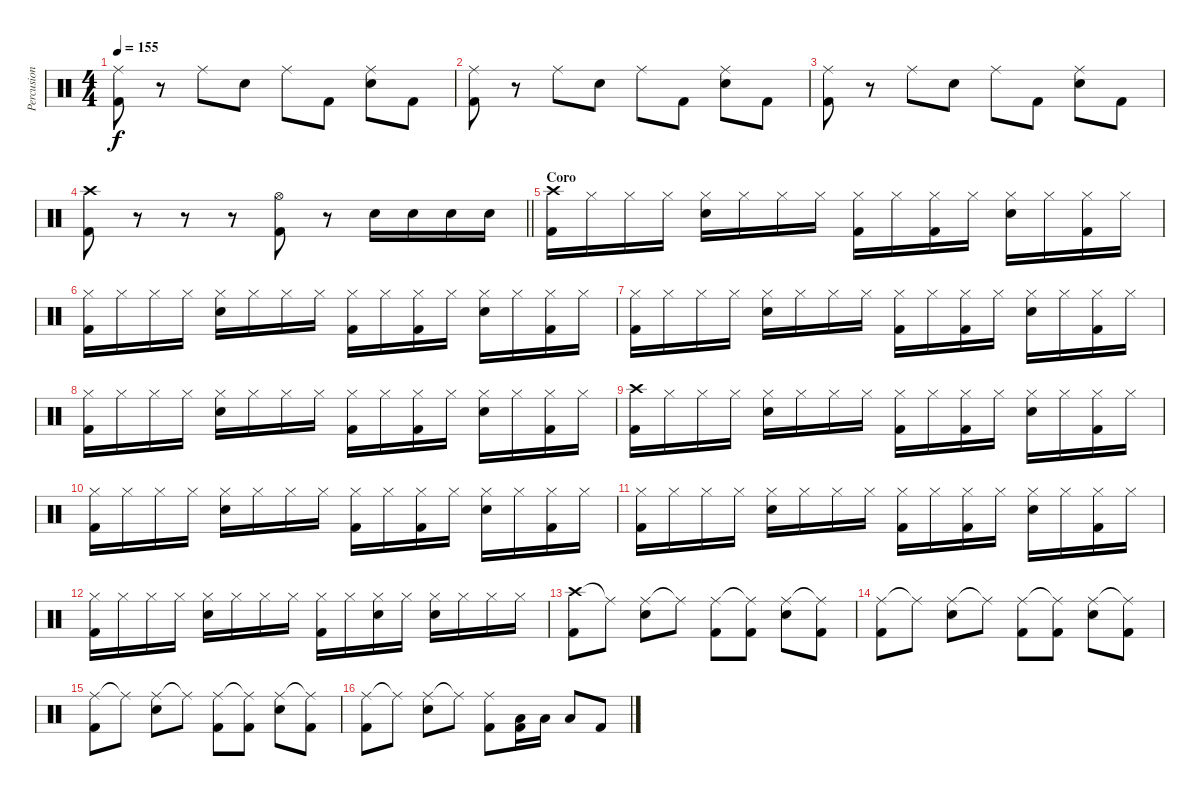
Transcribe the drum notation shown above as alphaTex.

\track ("Percusion" "Percusion") {instrument percussion}
\staff {score}
\articulation defaults
\ts (4 4)
\tempo 155
\clef neutral
\ks c
("Ride (middle)" "Kick (hit) 2").8{dy f} r.8 "Ride (middle)".8 "Electric Snare (hit)".8 "Ride (middle)".8 "Kick (hit) 2".8 ("Ride (middle)" "Electric Snare (hit)").8 "Kick (hit) 2".8 |
("Ride (middle)" "Kick (hit) 2").8 r.8 "Ride (middle)".8 "Electric Snare (hit)".8 "Ride (middle)".8 "Kick (hit) 2".8 ("Ride (middle)" "Electric Snare (hit)").8 "Kick (hit) 2".8 |
("Ride (middle)" "Kick (hit) 2").8 r.8 "Ride (middle)".8 "Electric Snare (hit)".8 "Ride (middle)".8 "Kick (hit) 2".8 ("Ride (middle)" "Electric Snare (hit)").8 "Kick (hit) 2".8 |
\barLineRight lightlight
("Crash high (hit)" "Kick (hit) 2").8 r.8 r.8 r.8 ("Hi-Hat (open)" "Kick (hit) 2").8 r.8 "Electric Snare (hit)".16 "Electric Snare (hit)".16 "Electric Snare (hit)".16 "Electric Snare (hit)".16 |
\section ("" "Coro")
("Crash high (hit)" "Kick (hit) 2").16 "Hi-Hat (closed)".16 "Hi-Hat (closed)".16 "Hi-Hat (closed)".16 ("Hi-Hat (closed)" "Electric Snare (hit)").16 "Hi-Hat (closed)".16 "Hi-Hat (closed)".16 "Hi-Hat (closed)".16 ("Hi-Hat (closed)" "Kick (hit) 2").16 "Hi-Hat (closed)".16 ("Hi-Hat (closed)" "Kick (hit) 2").16 "Hi-Hat (closed)".16 ("Hi-Hat (closed)" "Electric Snare (hit)").16 "Hi-Hat (closed)".16 ("Hi-Hat (closed)" "Kick (hit) 2").16 "Hi-Hat (closed)".16 |
("Hi-Hat (closed)" "Kick (hit) 2").16 "Hi-Hat (closed)".16 "Hi-Hat (closed)".16 "Hi-Hat (closed)".16 ("Hi-Hat (closed)" "Electric Snare (hit)").16 "Hi-Hat (closed)".16 "Hi-Hat (closed)".16 "Hi-Hat (closed)".16 ("Hi-Hat (closed)" "Kick (hit) 2").16 "Hi-Hat (closed)".16 ("Hi-Hat (closed)" "Kick (hit) 2").16 "Hi-Hat (closed)".16 ("Hi-Hat (closed)" "Electric Snare (hit)").16 "Hi-Hat (closed)".16 ("Hi-Hat (closed)" "Kick (hit) 2").16 "Hi-Hat (closed)".16 |
("Hi-Hat (closed)" "Kick (hit) 2").16 "Hi-Hat (closed)".16 "Hi-Hat (closed)".16 "Hi-Hat (closed)".16 ("Hi-Hat (closed)" "Electric Snare (hit)").16 "Hi-Hat (closed)".16 "Hi-Hat (closed)".16 "Hi-Hat (closed)".16 ("Hi-Hat (closed)" "Kick (hit) 2").16 "Hi-Hat (closed)".16 ("Hi-Hat (closed)" "Kick (hit) 2").16 "Hi-Hat (closed)".16 ("Hi-Hat (closed)" "Electric Snare (hit)").16 "Hi-Hat (closed)".16 ("Hi-Hat (closed)" "Kick (hit) 2").16 "Hi-Hat (closed)".16 |
("Hi-Hat (closed)" "Kick (hit) 2").16 "Hi-Hat (closed)".16 "Hi-Hat (closed)".16 "Hi-Hat (closed)".16 ("Hi-Hat (closed)" "Electric Snare (hit)").16 "Hi-Hat (closed)".16 "Hi-Hat (closed)".16 "Hi-Hat (closed)".16 ("Hi-Hat (closed)" "Kick (hit) 2").16 "Hi-Hat (closed)".16 ("Hi-Hat (closed)" "Kick (hit) 2").16 "Hi-Hat (closed)".16 ("Hi-Hat (closed)" "Electric Snare (hit)").16 "Hi-Hat (closed)".16 ("Hi-Hat (closed)" "Kick (hit) 2").16 "Hi-Hat (closed)".16 |
("Crash high (hit)" "Kick (hit) 2").16 "Hi-Hat (closed)".16 "Hi-Hat (closed)".16 "Hi-Hat (closed)".16 ("Hi-Hat (closed)" "Electric Snare (hit)").16 "Hi-Hat (closed)".16 "Hi-Hat (closed)".16 "Hi-Hat (closed)".16 ("Hi-Hat (closed)" "Kick (hit) 2").16 "Hi-Hat (closed)".16 ("Hi-Hat (closed)" "Kick (hit) 2").16 "Hi-Hat (closed)".16 ("Hi-Hat (closed)" "Electric Snare (hit)").16 "Hi-Hat (closed)".16 ("Hi-Hat (closed)" "Kick (hit) 2").16 "Hi-Hat (closed)".16 |
("Hi-Hat (closed)" "Kick (hit) 2").16 "Hi-Hat (closed)".16 "Hi-Hat (closed)".16 "Hi-Hat (closed)".16 ("Hi-Hat (closed)" "Electric Snare (hit)").16 "Hi-Hat (closed)".16 "Hi-Hat (closed)".16 "Hi-Hat (closed)".16 ("Hi-Hat (closed)" "Kick (hit) 2").16 "Hi-Hat (closed)".16 ("Hi-Hat (closed)" "Kick (hit) 2").16 "Hi-Hat (closed)".16 ("Hi-Hat (closed)" "Electric Snare (hit)").16 "Hi-Hat (closed)".16 ("Hi-Hat (closed)" "Kick (hit) 2").16 "Hi-Hat (closed)".16 |
("Hi-Hat (closed)" "Kick (hit) 2").16 "Hi-Hat (closed)".16 "Hi-Hat (closed)".16 "Hi-Hat (closed)".16 ("Hi-Hat (closed)" "Electric Snare (hit)").16 "Hi-Hat (closed)".16 "Hi-Hat (closed)".16 "Hi-Hat (closed)".16 ("Hi-Hat (closed)" "Kick (hit) 2").16 "Hi-Hat (closed)".16 ("Hi-Hat (closed)" "Kick (hit) 2").16 "Hi-Hat (closed)".16 ("Hi-Hat (closed)" "Electric Snare (hit)").16 "Hi-Hat (closed)".16 ("Hi-Hat (closed)" "Kick (hit) 2").16 "Hi-Hat (closed)".16 |
("Hi-Hat (closed)" "Kick (hit) 2").16 "Hi-Hat (closed)".16 "Hi-Hat (closed)".16 "Hi-Hat (closed)".16 ("Hi-Hat (closed)" "Electric Snare (hit)").16 "Hi-Hat (closed)".16 "Hi-Hat (closed)".16 "Hi-Hat (closed)".16 ("Hi-Hat (closed)" "Kick (hit) 2").16 "Hi-Hat (closed)".16 ("Hi-Hat (closed)" "Electric Snare (hit)").16 "Hi-Hat (closed)".16 ("Hi-Hat (closed)" "Electric Snare (hit)").16 "Hi-Hat (closed)".16 "Hi-Hat (closed)".16 "Hi-Hat (closed)".16 |
("Crash high (hit)" "Kick (hit) 2").8 "Ride (middle)"{t}.8 ("Ride (middle)" "Electric Snare (hit)").8 "Ride (middle)"{t}.8 ("Ride (middle)" "Kick (hit) 2").8 ("Ride (middle)"{t} "Kick (hit) 2").8 ("Ride (middle)" "Electric Snare (hit)").8 ("Ride (middle)"{t} "Kick (hit) 2").8 |
("Ride (middle)" "Kick (hit) 2").8 "Ride (middle)"{t}.8 ("Ride (middle)" "Electric Snare (hit)").8 "Ride (middle)"{t}.8 ("Ride (middle)" "Kick (hit) 2").8 ("Ride (middle)"{t} "Kick (hit) 2").8 ("Ride (middle)" "Electric Snare (hit)").8 ("Ride (middle)"{t} "Kick (hit) 2").8 |
("Ride (middle)" "Kick (hit) 2").8 "Ride (middle)"{t}.8 ("Ride (middle)" "Electric Snare (hit)").8 "Ride (middle)"{t}.8 ("Ride (middle)" "Kick (hit) 2").8 ("Ride (middle)"{t} "Kick (hit) 2").8 ("Ride (middle)" "Electric Snare (hit)").8 ("Ride (middle)"{t} "Kick (hit) 2").8 |
("Ride (middle)" "Kick (hit) 2").8 "Ride (middle)"{t}.8 ("Ride (middle)" "Electric Snare (hit)").8 "Ride (middle)"{t}.8 ("Ride (middle)" "Kick (hit) 2").8 ("Low Tom (hit)" "Kick (hit) 2").16 "Low Tom (hit)".16 "Low Tom (hit)".8 "Kick (hit) 2".8
